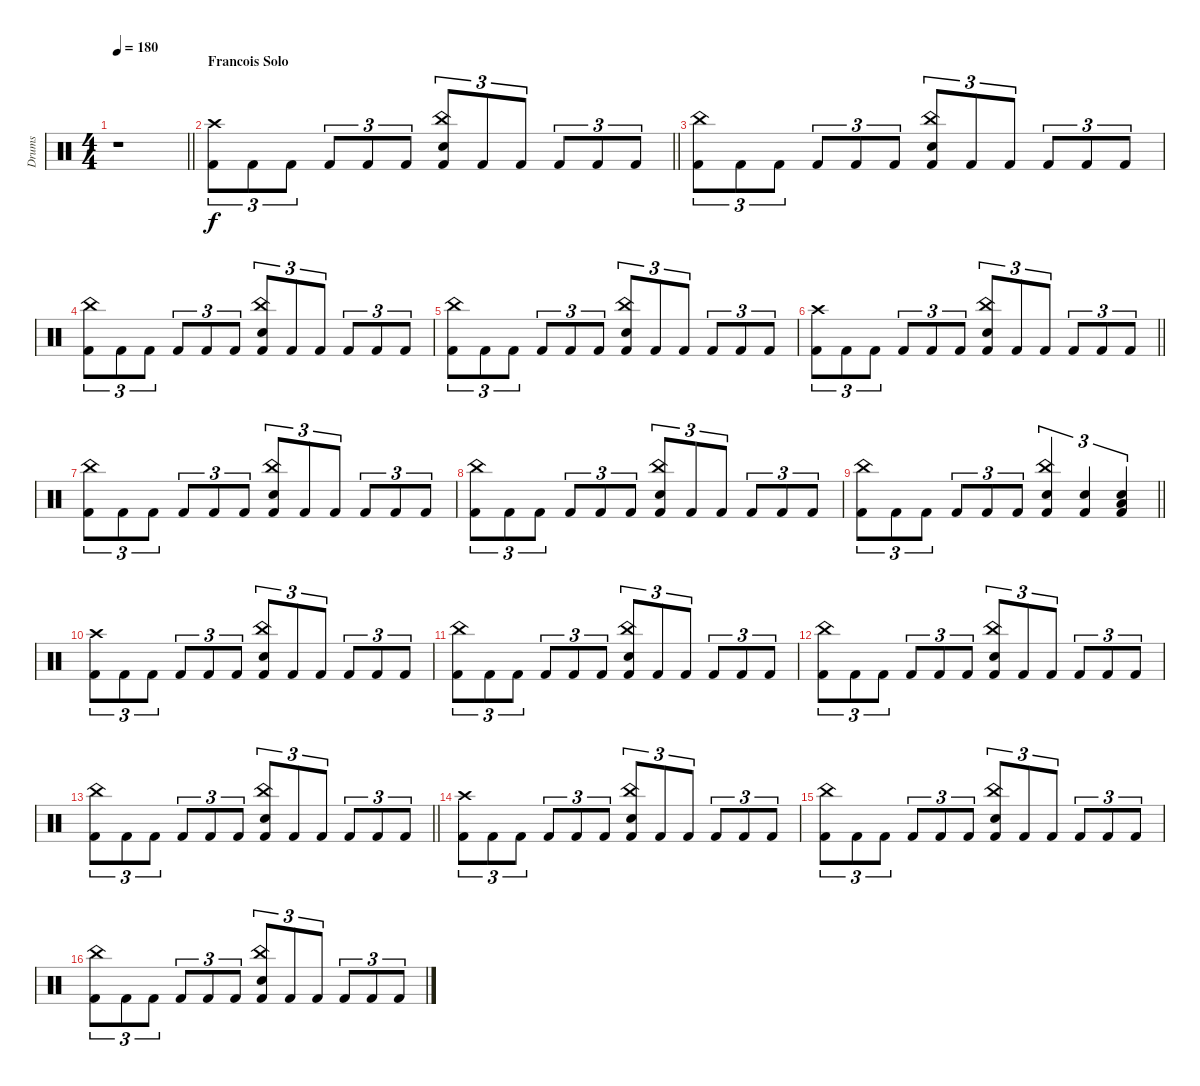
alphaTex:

\track ("Drums" "Drums") {instrument percussion}
\staff {score}
\articulation defaults
\ts (4 4)
\tempo 180
\clef neutral
\barLineRight lightlight
\ks c
r.1{dy f} |
\section ("" "Francois Solo")
\barLineRight lightlight
("Crash high (hit)" "Kick (hit) 2").8{tu (3 2)} "Kick (hit) 2".8{tu (3 2)} "Kick (hit) 2".8{tu (3 2)} "Kick (hit) 2".8{tu (3 2)} "Kick (hit) 2".8{tu (3 2)} "Kick (hit) 2".8{tu (3 2)} ("China (hit)" "Snare (hit) 2" "Kick (hit) 2").8{tu (3 2)} "Kick (hit) 2".8{tu (3 2)} "Kick (hit) 2".8{tu (3 2)} "Kick (hit) 2".8{tu (3 2)} "Kick (hit) 2".8{tu (3 2)} "Kick (hit) 2".8{tu (3 2)} |
("China (hit)" "Kick (hit) 2").8{tu (3 2)} "Kick (hit) 2".8{tu (3 2)} "Kick (hit) 2".8{tu (3 2)} "Kick (hit) 2".8{tu (3 2)} "Kick (hit) 2".8{tu (3 2)} "Kick (hit) 2".8{tu (3 2)} ("China (hit)" "Snare (hit) 2" "Kick (hit) 2").8{tu (3 2)} "Kick (hit) 2".8{tu (3 2)} "Kick (hit) 2".8{tu (3 2)} "Kick (hit) 2".8{tu (3 2)} "Kick (hit) 2".8{tu (3 2)} "Kick (hit) 2".8{tu (3 2)} |
("China (hit)" "Kick (hit) 2").8{tu (3 2)} "Kick (hit) 2".8{tu (3 2)} "Kick (hit) 2".8{tu (3 2)} "Kick (hit) 2".8{tu (3 2)} "Kick (hit) 2".8{tu (3 2)} "Kick (hit) 2".8{tu (3 2)} ("China (hit)" "Snare (hit) 2" "Kick (hit) 2").8{tu (3 2)} "Kick (hit) 2".8{tu (3 2)} "Kick (hit) 2".8{tu (3 2)} "Kick (hit) 2".8{tu (3 2)} "Kick (hit) 2".8{tu (3 2)} "Kick (hit) 2".8{tu (3 2)} |
("China (hit)" "Kick (hit) 2").8{tu (3 2)} "Kick (hit) 2".8{tu (3 2)} "Kick (hit) 2".8{tu (3 2)} "Kick (hit) 2".8{tu (3 2)} "Kick (hit) 2".8{tu (3 2)} "Kick (hit) 2".8{tu (3 2)} ("China (hit)" "Snare (hit) 2" "Kick (hit) 2").8{tu (3 2)} "Kick (hit) 2".8{tu (3 2)} "Kick (hit) 2".8{tu (3 2)} "Kick (hit) 2".8{tu (3 2)} "Kick (hit) 2".8{tu (3 2)} "Kick (hit) 2".8{tu (3 2)} |
\barLineRight lightlight
("Crash high (hit)" "Kick (hit) 2").8{tu (3 2)} "Kick (hit) 2".8{tu (3 2)} "Kick (hit) 2".8{tu (3 2)} "Kick (hit) 2".8{tu (3 2)} "Kick (hit) 2".8{tu (3 2)} "Kick (hit) 2".8{tu (3 2)} ("China (hit)" "Snare (hit) 2" "Kick (hit) 2").8{tu (3 2)} "Kick (hit) 2".8{tu (3 2)} "Kick (hit) 2".8{tu (3 2)} "Kick (hit) 2".8{tu (3 2)} "Kick (hit) 2".8{tu (3 2)} "Kick (hit) 2".8{tu (3 2)} |
("China (hit)" "Kick (hit) 2").8{tu (3 2)} "Kick (hit) 2".8{tu (3 2)} "Kick (hit) 2".8{tu (3 2)} "Kick (hit) 2".8{tu (3 2)} "Kick (hit) 2".8{tu (3 2)} "Kick (hit) 2".8{tu (3 2)} ("China (hit)" "Snare (hit) 2" "Kick (hit) 2").8{tu (3 2)} "Kick (hit) 2".8{tu (3 2)} "Kick (hit) 2".8{tu (3 2)} "Kick (hit) 2".8{tu (3 2)} "Kick (hit) 2".8{tu (3 2)} "Kick (hit) 2".8{tu (3 2)} |
("China (hit)" "Kick (hit) 2").8{tu (3 2)} "Kick (hit) 2".8{tu (3 2)} "Kick (hit) 2".8{tu (3 2)} "Kick (hit) 2".8{tu (3 2)} "Kick (hit) 2".8{tu (3 2)} "Kick (hit) 2".8{tu (3 2)} ("China (hit)" "Snare (hit) 2" "Kick (hit) 2").8{tu (3 2)} "Kick (hit) 2".8{tu (3 2)} "Kick (hit) 2".8{tu (3 2)} "Kick (hit) 2".8{tu (3 2)} "Kick (hit) 2".8{tu (3 2)} "Kick (hit) 2".8{tu (3 2)} |
\barLineRight lightlight
("China (hit)" "Kick (hit) 2").8{tu (3 2)} "Kick (hit) 2".8{tu (3 2)} "Kick (hit) 2".8{tu (3 2)} "Kick (hit) 2".8{tu (3 2)} "Kick (hit) 2".8{tu (3 2)} "Kick (hit) 2".8{tu (3 2)} ("China (hit)" "Snare (hit) 2" "Kick (hit) 2").4{tu (3 2)} ("Snare (hit) 2" "Kick (hit) 2").4{tu (3 2)} ("Low Tom (hit)" "Snare (hit) 2" "Kick (hit) 2").4{tu (3 2)} |
("Crash high (hit)" "Kick (hit) 2").8{tu (3 2)} "Kick (hit) 2".8{tu (3 2)} "Kick (hit) 2".8{tu (3 2)} "Kick (hit) 2".8{tu (3 2)} "Kick (hit) 2".8{tu (3 2)} "Kick (hit) 2".8{tu (3 2)} ("China (hit)" "Snare (hit) 2" "Kick (hit) 2").8{tu (3 2)} "Kick (hit) 2".8{tu (3 2)} "Kick (hit) 2".8{tu (3 2)} "Kick (hit) 2".8{tu (3 2)} "Kick (hit) 2".8{tu (3 2)} "Kick (hit) 2".8{tu (3 2)} |
("China (hit)" "Kick (hit) 2").8{tu (3 2)} "Kick (hit) 2".8{tu (3 2)} "Kick (hit) 2".8{tu (3 2)} "Kick (hit) 2".8{tu (3 2)} "Kick (hit) 2".8{tu (3 2)} "Kick (hit) 2".8{tu (3 2)} ("China (hit)" "Snare (hit) 2" "Kick (hit) 2").8{tu (3 2)} "Kick (hit) 2".8{tu (3 2)} "Kick (hit) 2".8{tu (3 2)} "Kick (hit) 2".8{tu (3 2)} "Kick (hit) 2".8{tu (3 2)} "Kick (hit) 2".8{tu (3 2)} |
("China (hit)" "Kick (hit) 2").8{tu (3 2)} "Kick (hit) 2".8{tu (3 2)} "Kick (hit) 2".8{tu (3 2)} "Kick (hit) 2".8{tu (3 2)} "Kick (hit) 2".8{tu (3 2)} "Kick (hit) 2".8{tu (3 2)} ("China (hit)" "Snare (hit) 2" "Kick (hit) 2").8{tu (3 2)} "Kick (hit) 2".8{tu (3 2)} "Kick (hit) 2".8{tu (3 2)} "Kick (hit) 2".8{tu (3 2)} "Kick (hit) 2".8{tu (3 2)} "Kick (hit) 2".8{tu (3 2)} |
\barLineRight lightlight
("China (hit)" "Kick (hit) 2").8{tu (3 2)} "Kick (hit) 2".8{tu (3 2)} "Kick (hit) 2".8{tu (3 2)} "Kick (hit) 2".8{tu (3 2)} "Kick (hit) 2".8{tu (3 2)} "Kick (hit) 2".8{tu (3 2)} ("China (hit)" "Snare (hit) 2" "Kick (hit) 2").8{tu (3 2)} "Kick (hit) 2".8{tu (3 2)} "Kick (hit) 2".8{tu (3 2)} "Kick (hit) 2".8{tu (3 2)} "Kick (hit) 2".8{tu (3 2)} "Kick (hit) 2".8{tu (3 2)} |
("Crash high (hit)" "Kick (hit) 2").8{tu (3 2)} "Kick (hit) 2".8{tu (3 2)} "Kick (hit) 2".8{tu (3 2)} "Kick (hit) 2".8{tu (3 2)} "Kick (hit) 2".8{tu (3 2)} "Kick (hit) 2".8{tu (3 2)} ("China (hit)" "Snare (hit) 2" "Kick (hit) 2").8{tu (3 2)} "Kick (hit) 2".8{tu (3 2)} "Kick (hit) 2".8{tu (3 2)} "Kick (hit) 2".8{tu (3 2)} "Kick (hit) 2".8{tu (3 2)} "Kick (hit) 2".8{tu (3 2)} |
("China (hit)" "Kick (hit) 2").8{tu (3 2)} "Kick (hit) 2".8{tu (3 2)} "Kick (hit) 2".8{tu (3 2)} "Kick (hit) 2".8{tu (3 2)} "Kick (hit) 2".8{tu (3 2)} "Kick (hit) 2".8{tu (3 2)} ("China (hit)" "Snare (hit) 2" "Kick (hit) 2").8{tu (3 2)} "Kick (hit) 2".8{tu (3 2)} "Kick (hit) 2".8{tu (3 2)} "Kick (hit) 2".8{tu (3 2)} "Kick (hit) 2".8{tu (3 2)} "Kick (hit) 2".8{tu (3 2)} |
("China (hit)" "Kick (hit) 2").8{tu (3 2)} "Kick (hit) 2".8{tu (3 2)} "Kick (hit) 2".8{tu (3 2)} "Kick (hit) 2".8{tu (3 2)} "Kick (hit) 2".8{tu (3 2)} "Kick (hit) 2".8{tu (3 2)} ("China (hit)" "Snare (hit) 2" "Kick (hit) 2").8{tu (3 2)} "Kick (hit) 2".8{tu (3 2)} "Kick (hit) 2".8{tu (3 2)} "Kick (hit) 2".8{tu (3 2)} "Kick (hit) 2".8{tu (3 2)} "Kick (hit) 2".8{tu (3 2)}
